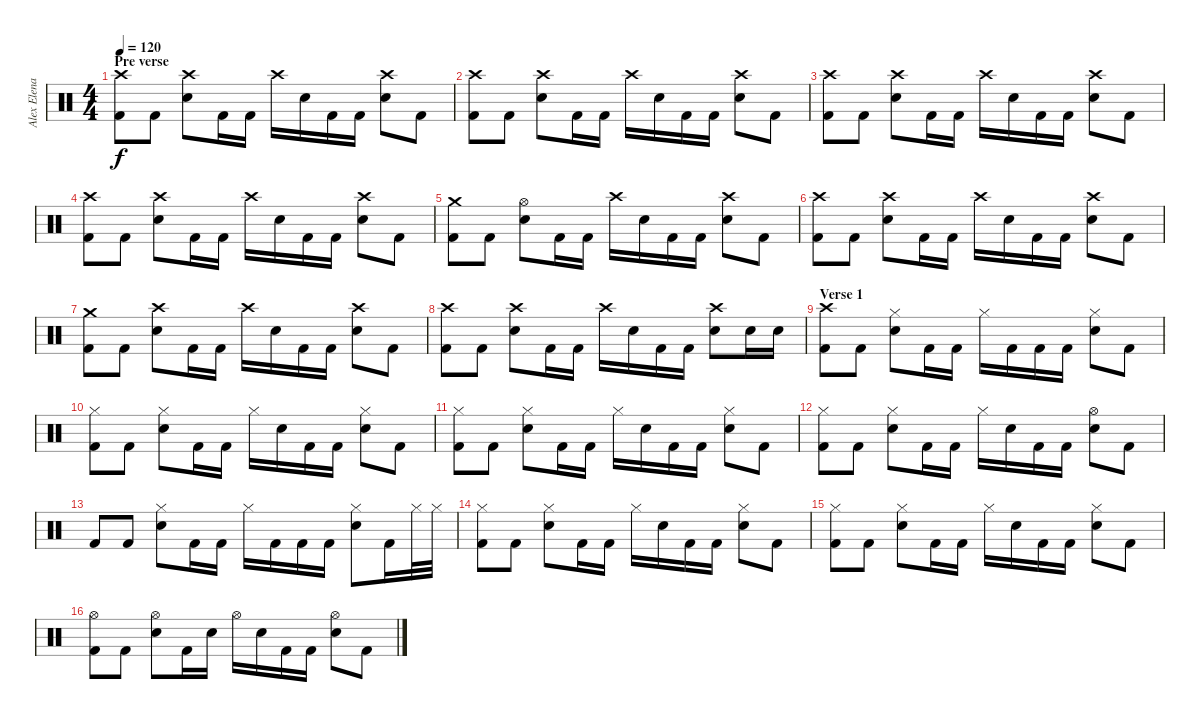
\track ("Alex Elena (Percussion)" "Alex Elena") {instrument percussion}
\staff {score}
\articulation defaults
\ts (4 4)
\section ("" "Pre verse")
\tempo 120
\clef neutral
\ks c
("Crash high (hit)" "Kick (hit) 2").8{dy f} "Kick (hit) 2".8 ("Crash high (hit)" "Snare (hit) 2").8 "Kick (hit) 2".16 "Kick (hit) 2".16 "Crash high (hit)".16 "Snare (hit) 2".16 "Kick (hit) 2".16 "Kick (hit) 2".16 ("Crash high (hit)" "Snare (hit) 2").8 "Kick (hit) 2".8 |
("Crash high (hit)" "Kick (hit) 2").8 "Kick (hit) 2".8 ("Crash high (hit)" "Snare (hit) 2").8 "Kick (hit) 2".16 "Kick (hit) 2".16 "Crash high (hit)".16 "Snare (hit) 2".16 "Kick (hit) 2".16 "Kick (hit) 2".16 ("Crash high (hit)" "Snare (hit) 2").8 "Kick (hit) 2".8 |
("Crash high (hit)" "Kick (hit) 2").8 "Kick (hit) 2".8 ("Crash high (hit)" "Snare (hit) 2").8 "Kick (hit) 2".16 "Kick (hit) 2".16 "Crash high (hit)".16 "Snare (hit) 2".16 "Kick (hit) 2".16 "Kick (hit) 2".16 ("Crash high (hit)" "Snare (hit) 2").8 "Kick (hit) 2".8 |
("Crash high (hit)" "Kick (hit) 2").8 "Kick (hit) 2".8 ("Crash high (hit)" "Snare (hit) 2").8 "Kick (hit) 2".16 "Kick (hit) 2".16 "Crash high (hit)".16 "Snare (hit) 2".16 "Kick (hit) 2".16 "Kick (hit) 2".16 ("Crash high (hit)" "Snare (hit) 2").8 "Kick (hit) 2".8 |
("Crash medium (hit)" "Kick (hit) 2").8 "Kick (hit) 2".8 ("Hi-Hat (open)" "Snare (hit) 2").8 "Kick (hit) 2".16 "Kick (hit) 2".16 "Crash high (hit)".16 "Snare (hit) 2".16 "Kick (hit) 2".16 "Kick (hit) 2".16 ("Crash high (hit)" "Snare (hit) 2").8 "Kick (hit) 2".8 |
("Crash high (hit)" "Kick (hit) 2").8 "Kick (hit) 2".8 ("Crash high (hit)" "Snare (hit) 2").8 "Kick (hit) 2".16 "Kick (hit) 2".16 "Crash high (hit)".16 "Snare (hit) 2".16 "Kick (hit) 2".16 "Kick (hit) 2".16 ("Crash high (hit)" "Snare (hit) 2").8 "Kick (hit) 2".8 |
("Crash medium (hit)" "Kick (hit) 2").8 "Kick (hit) 2".8 ("Crash high (hit)" "Snare (hit) 2").8 "Kick (hit) 2".16 "Kick (hit) 2".16 "Crash high (hit)".16 "Snare (hit) 2".16 "Kick (hit) 2".16 "Kick (hit) 2".16 ("Crash high (hit)" "Snare (hit) 2").8 "Kick (hit) 2".8 |
("Crash high (hit)" "Kick (hit) 2").8 "Kick (hit) 2".8 ("Crash high (hit)" "Snare (hit) 2").8 "Kick (hit) 2".16 "Kick (hit) 2".16 "Crash high (hit)".16 "Snare (hit) 2".16 "Kick (hit) 2".16 "Kick (hit) 2".16 ("Crash high (hit)" "Snare (hit) 2").8 "Snare (hit) 2".16 "Snare (hit) 2".16 |
\section ("" "Verse 1")
("Crash high (hit)" "Kick (hit) 2").8 "Kick (hit) 2".8 ("Hi-Hat (closed)" "Snare (hit) 2").8 "Kick (hit) 2".16 "Kick (hit) 2".16 "Hi-Hat (closed)".16 "Kick (hit) 2".16 "Kick (hit) 2".16 "Kick (hit) 2".16 ("Hi-Hat (closed)" "Snare (hit) 2").8 "Kick (hit) 2".8 |
("Hi-Hat (closed)" "Kick (hit) 2").8 "Kick (hit) 2".8 ("Hi-Hat (closed)" "Snare (hit) 2").8 "Kick (hit) 2".16 "Kick (hit) 2".16 "Hi-Hat (closed)".16 "Snare (hit) 2".16 "Kick (hit) 2".16 "Kick (hit) 2".16 ("Hi-Hat (closed)" "Snare (hit) 2").8 "Kick (hit) 2".8 |
("Hi-Hat (closed)" "Kick (hit) 2").8 "Kick (hit) 2".8 ("Hi-Hat (closed)" "Snare (hit) 2").8 "Kick (hit) 2".16 "Kick (hit) 2".16 "Hi-Hat (closed)".16 "Snare (hit) 2".16 "Kick (hit) 2".16 "Kick (hit) 2".16 ("Hi-Hat (closed)" "Snare (hit) 2").8 "Kick (hit) 2".8 |
("Hi-Hat (closed)" "Kick (hit) 2").8 "Kick (hit) 2".8 ("Hi-Hat (closed)" "Snare (hit) 2").8 "Kick (hit) 2".16 "Kick (hit) 2".16 "Hi-Hat (closed)".16 "Snare (hit) 2".16 "Kick (hit) 2".16 "Kick (hit) 2".16 ("Hi-Hat (open)" "Snare (hit) 2").8 "Kick (hit) 2".8 |
"Kick (hit) 2".8 "Kick (hit) 2".8 ("Hi-Hat (closed)" "Snare (hit) 2").8 "Kick (hit) 2".16 "Kick (hit) 2".16 "Hi-Hat (closed)".16 "Kick (hit) 2".16 "Kick (hit) 2".16 "Kick (hit) 2".16 ("Hi-Hat (closed)" "Snare (hit) 2").8 "Kick (hit) 2".16 "Hi-Hat (closed)".32 "Hi-Hat (closed)".32 |
("Hi-Hat (closed)" "Kick (hit) 2").8 "Kick (hit) 2".8 ("Hi-Hat (closed)" "Snare (hit) 2").8 "Kick (hit) 2".16 "Kick (hit) 2".16 "Hi-Hat (closed)".16 "Snare (hit) 2".16 "Kick (hit) 2".16 "Kick (hit) 2".16 ("Hi-Hat (closed)" "Snare (hit) 2").8 "Kick (hit) 2".8 |
("Hi-Hat (closed)" "Kick (hit) 2").8 "Kick (hit) 2".8 ("Hi-Hat (closed)" "Snare (hit) 2").8 "Kick (hit) 2".16 "Kick (hit) 2".16 "Hi-Hat (closed)".16 "Snare (hit) 2".16 "Kick (hit) 2".16 "Kick (hit) 2".16 ("Hi-Hat (closed)" "Snare (hit) 2").8 "Kick (hit) 2".8 |
("Hi-Hat (open)" "Kick (hit) 2").8 "Kick (hit) 2".8 ("Hi-Hat (open)" "Snare (hit) 2").8 "Kick (hit) 2".16 "Snare (hit) 2".16 "Hi-Hat (open)".16 "Snare (hit) 2".16 "Kick (hit) 2".16 "Kick (hit) 2".16 ("Hi-Hat (open)" "Snare (hit) 2").8 "Kick (hit) 2".8
